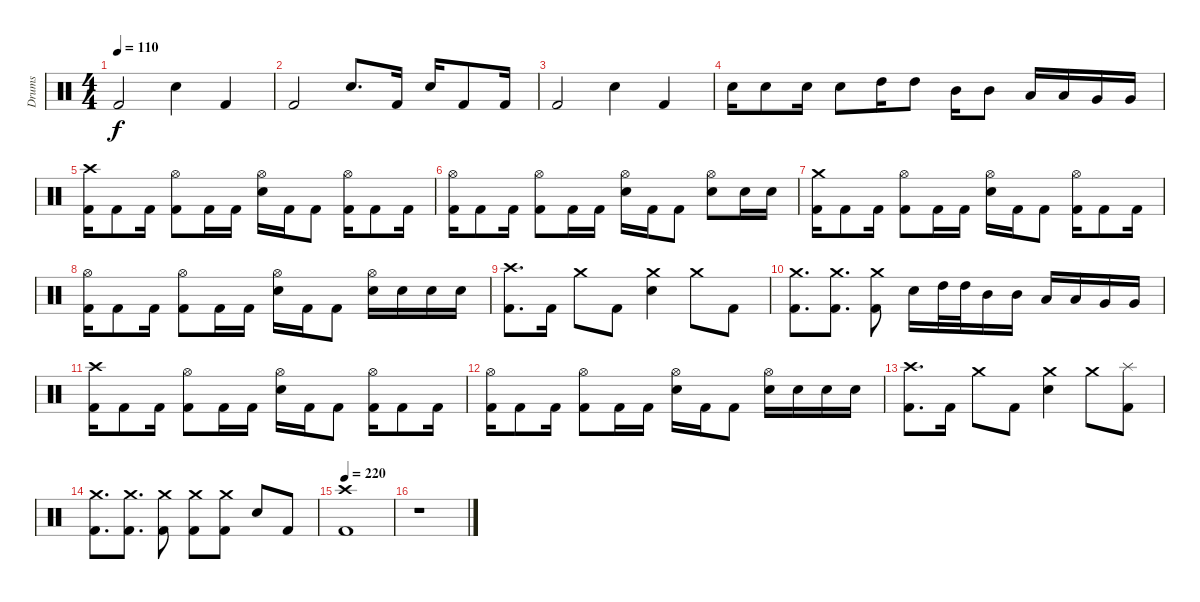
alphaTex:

\track ("Drums" "Drums") {instrument percussion}
\staff {score}
\articulation defaults
\ts (4 4)
\tempo 110
\clef neutral
\ks c "Kick (hit) 2".2{dy f} "Snare (hit) 2".4 "Kick (hit) 2".4
|
"Kick (hit) 2".2 "Snare (hit) 2".8{d} "Kick (hit) 2".16 "Snare (hit) 2".16 "Kick (hit) 2".8 "Kick (hit) 2".16 |
"Kick (hit) 2".2 "Snare (hit) 2".4 "Kick (hit) 2".4 |
"Snare (hit) 2".16 "Snare (hit) 2".8 "Snare (hit) 2".16 "Snare (hit) 2".8 "High Tom (hit)".16 "High Tom (hit)".8 "Mid Tom (hit)".16 "Mid Tom (hit)".8 "Low Tom (hit)".16 "Low Tom (hit)".16 "Very Low Tom (hit)".16 "Very Low Tom (hit)".16 |
("Crash high (hit)" "Kick (hit) 2").16 "Kick (hit) 2".8 "Kick (hit) 2".16 ("Hi-Hat (open)" "Kick (hit) 2").8 "Kick (hit) 2".16 "Kick (hit) 2".16 ("Hi-Hat (open)" "Snare (hit) 2").16 "Kick (hit) 2".16 "Kick (hit) 2".8 ("Hi-Hat (open)" "Kick (hit) 2").16 "Kick (hit) 2".8 "Kick (hit) 2".16 |
("Hi-Hat (open)" "Kick (hit) 2").16 "Kick (hit) 2".8 "Kick (hit) 2".16 ("Hi-Hat (open)" "Kick (hit) 2").8 "Kick (hit) 2".16 "Kick (hit) 2".16 ("Hi-Hat (open)" "Snare (hit) 2").16 "Kick (hit) 2".16 "Kick (hit) 2".8 ("Hi-Hat (open)" "Snare (hit) 2").8 "Snare (hit) 2".16 "Snare (hit) 2".16 |
("Crash medium (hit)" "Kick (hit) 2").16 "Kick (hit) 2".8 "Kick (hit) 2".16 ("Hi-Hat (open)" "Kick (hit) 2").8 "Kick (hit) 2".16 "Kick (hit) 2".16 ("Hi-Hat (open)" "Snare (hit) 2").16 "Kick (hit) 2".16 "Kick (hit) 2".8 ("Hi-Hat (open)" "Kick (hit) 2").16 "Kick (hit) 2".8 "Kick (hit) 2".16 |
("Hi-Hat (open)" "Kick (hit) 2").16 "Kick (hit) 2".8 "Kick (hit) 2".16 ("Hi-Hat (open)" "Kick (hit) 2").8 "Kick (hit) 2".16 "Kick (hit) 2".16 ("Hi-Hat (open)" "Snare (hit) 2").16 "Kick (hit) 2".16 "Kick (hit) 2".8 ("Hi-Hat (open)" "Snare (hit) 2").16 "Snare (hit) 2".16 "Snare (hit) 2".16 "Snare (hit) 2".16 |
("Crash high (hit)" "Kick (hit) 2").8{d} "Kick (hit) 2".16 "Crash medium (hit)".8 "Kick (hit) 2".8 ("Crash medium (hit)" "Snare (hit) 2").4 "Crash medium (hit)".8 "Kick (hit) 2".8 |
("Crash medium (hit)" "Kick (hit) 2").8{d} ("Crash medium (hit)" "Kick (hit) 2").8{d} ("Crash medium (hit)" "Kick (hit) 2").8 "Snare (hit) 2".16 "High Tom (hit)".32 "High Tom (hit)".32 "Mid Tom (hit)".16 "Mid Tom (hit)".16 "Low Tom (hit)".16 "Low Tom (hit)".16 "Very Low Tom (hit)".16 "Very Low Tom (hit)".16 |
("Crash high (hit)" "Kick (hit) 2").16 "Kick (hit) 2".8 "Kick (hit) 2".16 ("Hi-Hat (open)" "Kick (hit) 2").8 "Kick (hit) 2".16 "Kick (hit) 2".16 ("Hi-Hat (open)" "Snare (hit) 2").16 "Kick (hit) 2".16 "Kick (hit) 2".8 ("Hi-Hat (open)" "Kick (hit) 2").16 "Kick (hit) 2".8 "Kick (hit) 2".16 |
("Hi-Hat (open)" "Kick (hit) 2").16 "Kick (hit) 2".8 "Kick (hit) 2".16 ("Hi-Hat (open)" "Kick (hit) 2").8 "Kick (hit) 2".16 "Kick (hit) 2".16 ("Hi-Hat (open)" "Snare (hit) 2").16 "Kick (hit) 2".16 "Kick (hit) 2".8 ("Hi-Hat (open)" "Snare (hit) 2").16 "Snare (hit) 2".16 "Snare (hit) 2".16 "Snare (hit) 2".16 |
("Crash high (hit)" "Kick (hit) 2").8{d} "Kick (hit) 2".16 "Crash medium (hit)".8 "Kick (hit) 2".8 ("Crash medium (hit)" "Snare (hit) 2").4 "Crash medium (hit)".8 ("Splash (hit)" "Kick (hit) 2").8 |
("Crash medium (hit)" "Kick (hit) 2").8{d} ("Crash medium (hit)" "Kick (hit) 2").8{d} ("Crash medium (hit)" "Kick (hit) 2").8 ("Crash medium (hit)" "Kick (hit) 2").8 ("Crash medium (hit)" "Kick (hit) 2").8 "Snare (hit) 2".8 "Kick (hit) 2".8 |
\tempo 220
("Crash high (hit)" "Kick (hit) 2").1 |
r.1
